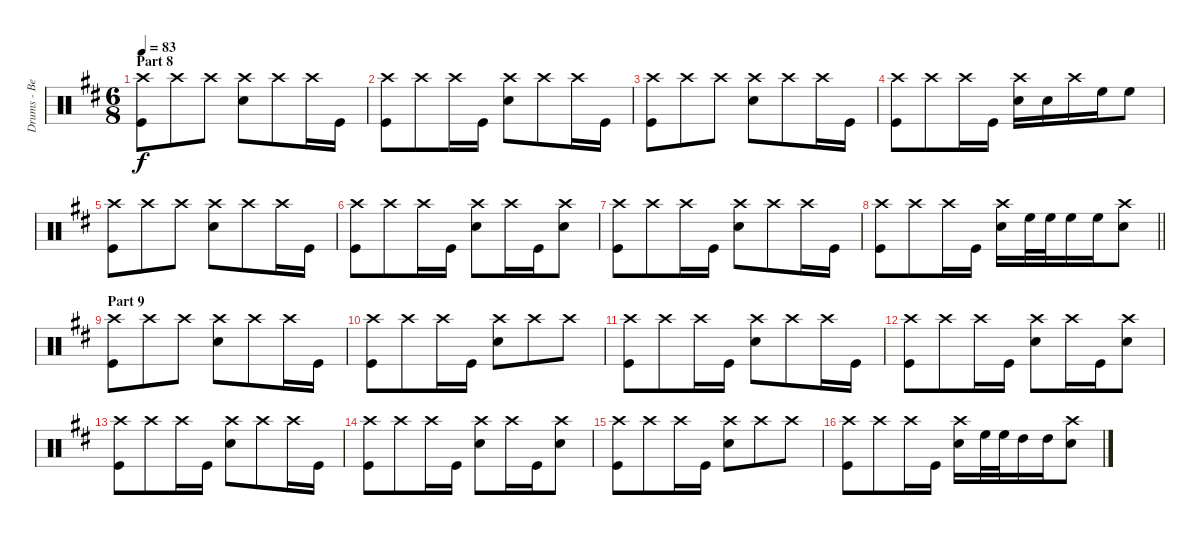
\track ("Drums - Ben Johnston" "Drums - Be") {instrument percussion}
\staff {score}
\articulation defaults
\ts (6 8)
\section ("" "Part 8")
\tempo 83
\clef neutral
\ks d
("Crash high (hit)" "Kick (hit)").8{dy f} "Crash high (hit)".8 "Crash high (hit)".8 ("Crash high (hit)" "Snare (hit) 2").8 "Crash high (hit)".8 "Crash high (hit)".16 "Kick (hit)".16 |
("Crash high (hit)" "Kick (hit)").8 "Crash high (hit)".8 "Crash high (hit)".16 "Kick (hit)".16 ("Crash high (hit)" "Snare (hit) 2").8 "Crash high (hit)".8 "Crash high (hit)".16 "Kick (hit)".16 |
("Crash high (hit)" "Kick (hit)").8 "Crash high (hit)".8 "Crash high (hit)".8 ("Crash high (hit)" "Snare (hit) 2").8 "Crash high (hit)".8 "Crash high (hit)".16 "Kick (hit)".16 |
("Crash high (hit)" "Kick (hit)").8 "Crash high (hit)".8 "Crash high (hit)".16 "Kick (hit)".16 ("Crash high (hit)" "Snare (hit) 2").16 "Snare (hit) 2".16 "Crash high (hit)".16 "High Floor Tom (hit)".16 "High Floor Tom (hit)".8 |
("Crash high (hit)" "Kick (hit)").8 "Crash high (hit)".8 "Crash high (hit)".8 ("Crash high (hit)" "Snare (hit) 2").8 "Crash high (hit)".8 "Crash high (hit)".16 "Kick (hit)".16 |
("Crash high (hit)" "Kick (hit)").8 "Crash high (hit)".8 "Crash high (hit)".16 "Kick (hit)".16 ("Crash high (hit)" "Snare (hit) 2").8 "Crash high (hit)".16 "Kick (hit)".16 ("Crash high (hit)" "Snare (hit) 2").8 |
("Crash high (hit)" "Kick (hit)").8 "Crash high (hit)".8 "Crash high (hit)".16 "Kick (hit)".16 ("Crash high (hit)" "Snare (hit) 2").8 "Crash high (hit)".8 "Crash high (hit)".16 "Kick (hit)".16 |
\barLineRight lightlight
("Crash high (hit)" "Kick (hit)").8 "Crash high (hit)".8 "Crash high (hit)".16 "Kick (hit)".16 ("Crash high (hit)" "Snare (hit) 2").16 "High Floor Tom (hit)".32 "High Floor Tom (hit)".32 "High Floor Tom (hit)".16 "High Floor Tom (hit)".16 ("Crash high (hit)" "Snare (hit) 2").8 |
\section ("" "Part 9")
("Crash high (hit)" "Kick (hit)").8 "Crash high (hit)".8 "Crash high (hit)".8 ("Crash high (hit)" "Snare (hit) 2").8 "Crash high (hit)".8 "Crash high (hit)".16 "Kick (hit)".16 |
("Crash high (hit)" "Kick (hit)").8 "Crash high (hit)".8 "Crash high (hit)".16 "Kick (hit)".16 ("Crash high (hit)" "Snare (hit) 2").8 "Crash high (hit)".8 "Crash high (hit)".8 |
("Crash high (hit)" "Kick (hit)").8 "Crash high (hit)".8 "Crash high (hit)".16 "Kick (hit)".16 ("Crash high (hit)" "Snare (hit) 2").8 "Crash high (hit)".8 "Crash high (hit)".16 "Kick (hit)".16 |
("Crash high (hit)" "Kick (hit)").8 "Crash high (hit)".8 "Crash high (hit)".16 "Kick (hit)".16 ("Crash high (hit)" "Snare (hit) 2").8 "Crash high (hit)".16 "Kick (hit)".16 ("Crash high (hit)" "Snare (hit) 2").8 |
("Crash high (hit)" "Kick (hit)").8 "Crash high (hit)".8 "Crash high (hit)".16 "Kick (hit)".16 ("Crash high (hit)" "Snare (hit) 2").8 "Crash high (hit)".8 "Crash high (hit)".16 "Kick (hit)".16 |
("Crash high (hit)" "Kick (hit)").8 "Crash high (hit)".8 "Crash high (hit)".16 "Kick (hit)".16 ("Crash high (hit)" "Snare (hit) 2").8 "Crash high (hit)".16 "Kick (hit)".16 ("Crash high (hit)" "Snare (hit) 2").8 |
("Crash high (hit)" "Kick (hit)").8 "Crash high (hit)".8 "Crash high (hit)".16 "Kick (hit)".16 ("Crash high (hit)" "Snare (hit) 2").8 "Crash high (hit)".8 "Crash high (hit)".8 |
("Crash high (hit)" "Kick (hit)").8 "Crash high (hit)".8 "Crash high (hit)".16 "Kick (hit)".16 ("Crash high (hit)" "Snare (hit) 2").16 "High Floor Tom (hit)".32 "High Floor Tom (hit)".32 "High Tom (hit)".16 "High Tom (hit)".16 ("Crash high (hit)" "Snare (hit) 2").8
